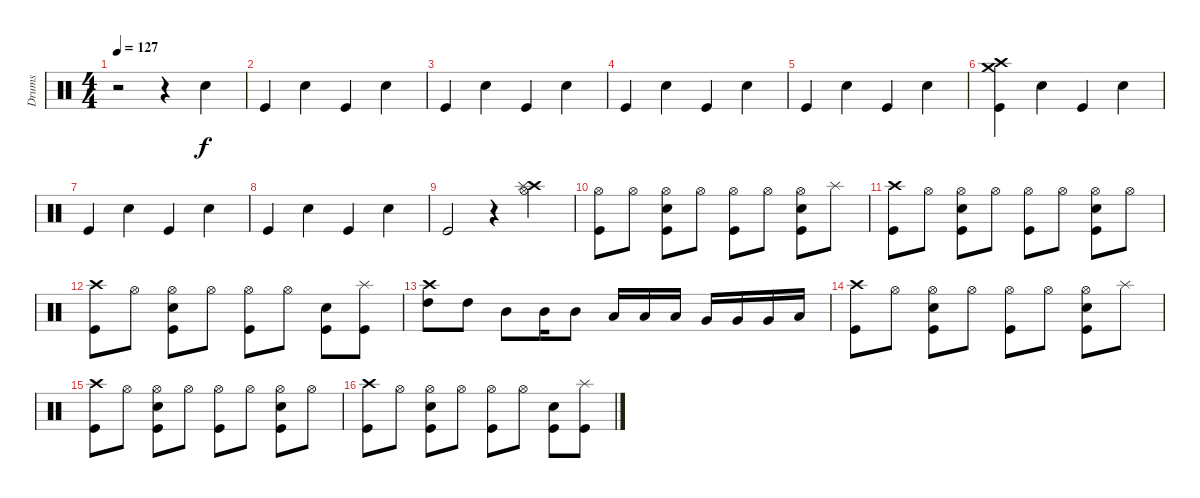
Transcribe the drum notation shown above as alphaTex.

\track ("Drums" "Drums") {instrument percussion}
\staff {score}
\articulation defaults
\ts (4 4)
\tempo 127
\clef neutral
\ks c
r.2{dy f} r.4 "Electric Snare (hit)".4 |
"Kick (hit)".4 "Electric Snare (hit)".4 "Kick (hit)".4 "Electric Snare (hit)".4 |
"Kick (hit)".4 "Electric Snare (hit)".4 "Kick (hit)".4 "Electric Snare (hit)".4 |
"Kick (hit)".4 "Electric Snare (hit)".4 "Kick (hit)".4 "Electric Snare (hit)".4 |
"Kick (hit)".4 "Electric Snare (hit)".4 "Kick (hit)".4 "Electric Snare (hit)".4 |
("Crash high (hit)" "Crash medium (hit)" "Kick (hit)").4 "Electric Snare (hit)".4 "Kick (hit)".4 "Electric Snare (hit)".4 |
"Kick (hit)".4 "Electric Snare (hit)".4 "Kick (hit)".4 "Electric Snare (hit)".4 |
"Kick (hit)".4 "Electric Snare (hit)".4 "Kick (hit)".4 "Electric Snare (hit)".4 |
"Kick (hit)".2 r.4 ("Crash high (hit)" "Splash (hit)" "Hi-Hat (open)").4 |
("Hi-Hat (open)" "Kick (hit)").8 "Hi-Hat (open)".8 ("Hi-Hat (open)" "Electric Snare (hit)" "Kick (hit)").8 "Hi-Hat (open)".8 ("Hi-Hat (open)" "Kick (hit)").8 "Hi-Hat (open)".8 ("Hi-Hat (open)" "Electric Snare (hit)" "Kick (hit)").8 "Splash (hit)".8 |
("Crash high (hit)" "Kick (hit)").8 "Hi-Hat (open)".8 ("Hi-Hat (open)" "Electric Snare (hit)" "Kick (hit)").8 "Hi-Hat (open)".8 ("Hi-Hat (open)" "Kick (hit)").8 "Hi-Hat (open)".8 ("Hi-Hat (open)" "Electric Snare (hit)" "Kick (hit)").8 "Hi-Hat (open)".8 |
("Crash high (hit)" "Kick (hit)").8 "Hi-Hat (open)".8 ("Hi-Hat (open)" "Electric Snare (hit)" "Kick (hit)").8 "Hi-Hat (open)".8 ("Hi-Hat (open)" "Kick (hit)").8 "Hi-Hat (open)".8 ("Electric Snare (hit)" "Kick (hit)").8 ("Splash (hit)" "Kick (hit)").8 |
("Crash high (hit)" "High Tom (hit)").8 "High Tom (hit)".8 "Mid Tom (hit)".8 "Mid Tom (hit)".16 "Mid Tom (hit)".8 "Low Tom (hit)".16 "Low Tom (hit)".16 "Low Tom (hit)".16 "Very Low Tom (hit)".16 "Very Low Tom (hit)".16 "Very Low Tom (hit)".16 "Low Floor Tom (hit)".16 |
("Crash high (hit)" "Kick (hit)").8 "Hi-Hat (open)".8 ("Hi-Hat (open)" "Electric Snare (hit)" "Kick (hit)").8 "Hi-Hat (open)".8 ("Hi-Hat (open)" "Kick (hit)").8 "Hi-Hat (open)".8 ("Hi-Hat (open)" "Electric Snare (hit)" "Kick (hit)").8 "Splash (hit)".8 |
("Crash high (hit)" "Kick (hit)").8 "Hi-Hat (open)".8 ("Hi-Hat (open)" "Electric Snare (hit)" "Kick (hit)").8 "Hi-Hat (open)".8 ("Hi-Hat (open)" "Kick (hit)").8 "Hi-Hat (open)".8 ("Hi-Hat (open)" "Electric Snare (hit)" "Kick (hit)").8 "Hi-Hat (open)".8 |
("Crash high (hit)" "Kick (hit)").8 "Hi-Hat (open)".8 ("Hi-Hat (open)" "Electric Snare (hit)" "Kick (hit)").8 "Hi-Hat (open)".8 ("Hi-Hat (open)" "Kick (hit)").8 "Hi-Hat (open)".8 ("Electric Snare (hit)" "Kick (hit)").8 ("Splash (hit)" "Kick (hit)").8
